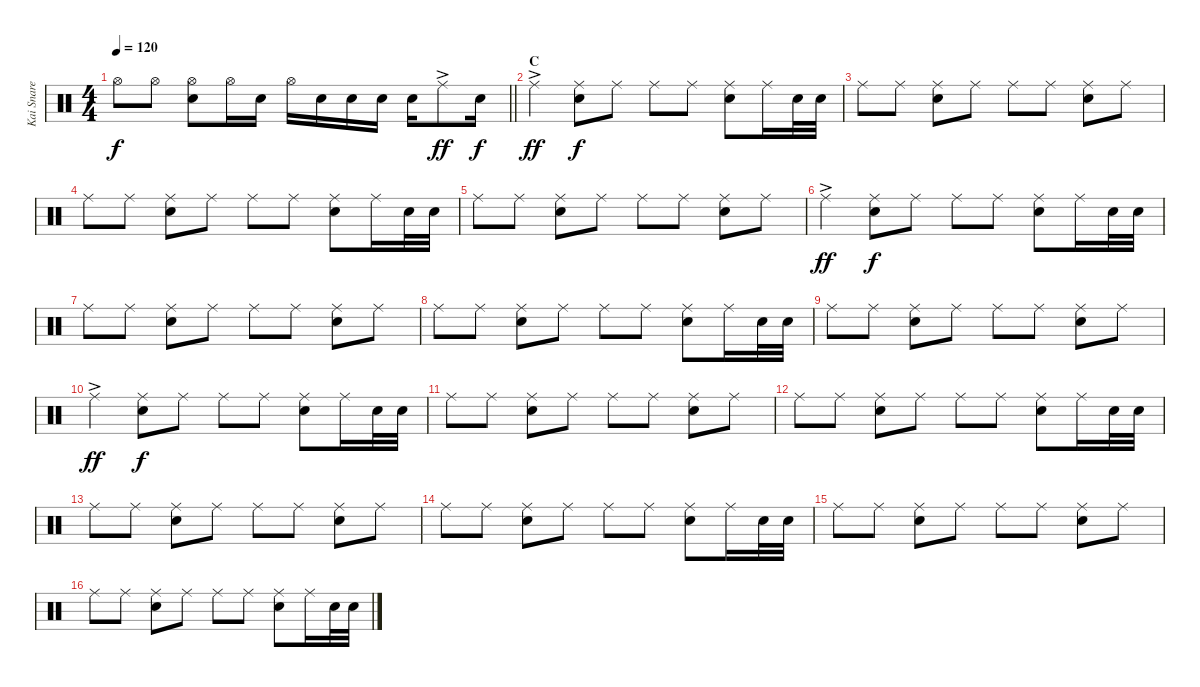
\track ("Kai Snare" "Kai Snare") {instrument percussion}
\staff {score}
\articulation defaults
\ts (4 4)
\tempo 120
\clef neutral
\barLineRight lightlight
\ks c "Hi-Hat (open)".8{dy f} "Hi-Hat (open)".8
("Hi-Hat (open)" "Snare (hit) 2").8 "Hi-Hat (open)".16 "Snare (hit) 2".16 "Hi-Hat (open)".16 "Snare (hit) 2".16 "Snare (hit) 2".16 "Snare (hit) 2".16 "Snare (hit) 2".16 "Ride (middle)"{ac}.8{dy ff} "Snare (hit) 2".16{dy f} |
\section ("" "C")
"Ride (middle)"{ac}.4{dy ff} ("Ride (middle)" "Snare (hit) 2").8{dy f} "Ride (middle)".8 "Ride (middle)".8 "Ride (middle)".8 ("Ride (middle)" "Snare (hit) 2").8 "Ride (middle)".16 "Snare (hit) 2".32 "Snare (hit) 2".32 |
"Ride (middle)".8 "Ride (middle)".8 ("Ride (middle)" "Snare (hit) 2").8 "Ride (middle)".8 "Ride (middle)".8 "Ride (middle)".8 ("Ride (middle)" "Snare (hit) 2").8 "Ride (middle)".8 |
"Ride (middle)".8 "Ride (middle)".8 ("Ride (middle)" "Snare (hit) 2").8 "Ride (middle)".8 "Ride (middle)".8 "Ride (middle)".8 ("Ride (middle)" "Snare (hit) 2").8 "Ride (middle)".16 "Snare (hit) 2".32 "Snare (hit) 2".32 |
"Ride (middle)".8 "Ride (middle)".8 ("Ride (middle)" "Snare (hit) 2").8 "Ride (middle)".8 "Ride (middle)".8 "Ride (middle)".8 ("Ride (middle)" "Snare (hit) 2").8 "Ride (middle)".8 |
"Ride (middle)"{ac}.4{dy ff} ("Ride (middle)" "Snare (hit) 2").8{dy f} "Ride (middle)".8 "Ride (middle)".8 "Ride (middle)".8 ("Ride (middle)" "Snare (hit) 2").8 "Ride (middle)".16 "Snare (hit) 2".32 "Snare (hit) 2".32 |
"Ride (middle)".8 "Ride (middle)".8 ("Ride (middle)" "Snare (hit) 2").8 "Ride (middle)".8 "Ride (middle)".8 "Ride (middle)".8 ("Ride (middle)" "Snare (hit) 2").8 "Ride (middle)".8 |
"Ride (middle)".8 "Ride (middle)".8 ("Ride (middle)" "Snare (hit) 2").8 "Ride (middle)".8 "Ride (middle)".8 "Ride (middle)".8 ("Ride (middle)" "Snare (hit) 2").8 "Ride (middle)".16 "Snare (hit) 2".32 "Snare (hit) 2".32 |
"Ride (middle)".8 "Ride (middle)".8 ("Ride (middle)" "Snare (hit) 2").8 "Ride (middle)".8 "Ride (middle)".8 "Ride (middle)".8 ("Ride (middle)" "Snare (hit) 2").8 "Ride (middle)".8 |
"Ride (middle)"{ac}.4{dy ff} ("Ride (middle)" "Snare (hit) 2").8{dy f} "Ride (middle)".8 "Ride (middle)".8 "Ride (middle)".8 ("Ride (middle)" "Snare (hit) 2").8 "Ride (middle)".16 "Snare (hit) 2".32 "Snare (hit) 2".32 |
"Ride (middle)".8 "Ride (middle)".8 ("Ride (middle)" "Snare (hit) 2").8 "Ride (middle)".8 "Ride (middle)".8 "Ride (middle)".8 ("Ride (middle)" "Snare (hit) 2").8 "Ride (middle)".8 |
"Ride (middle)".8 "Ride (middle)".8 ("Ride (middle)" "Snare (hit) 2").8 "Ride (middle)".8 "Ride (middle)".8 "Ride (middle)".8 ("Ride (middle)" "Snare (hit) 2").8 "Ride (middle)".16 "Snare (hit) 2".32 "Snare (hit) 2".32 |
"Ride (middle)".8 "Ride (middle)".8 ("Ride (middle)" "Snare (hit) 2").8 "Ride (middle)".8 "Ride (middle)".8 "Ride (middle)".8 ("Ride (middle)" "Snare (hit) 2").8 "Ride (middle)".8 |
"Ride (middle)".8 "Ride (middle)".8 ("Ride (middle)" "Snare (hit) 2").8 "Ride (middle)".8 "Ride (middle)".8 "Ride (middle)".8 ("Ride (middle)" "Snare (hit) 2").8 "Ride (middle)".16 "Snare (hit) 2".32 "Snare (hit) 2".32 |
"Ride (middle)".8 "Ride (middle)".8 ("Ride (middle)" "Snare (hit) 2").8 "Ride (middle)".8 "Ride (middle)".8 "Ride (middle)".8 ("Ride (middle)" "Snare (hit) 2").8 "Ride (middle)".8 |
"Ride (middle)".8 "Ride (middle)".8 ("Ride (middle)" "Snare (hit) 2").8 "Ride (middle)".8 "Ride (middle)".8 "Ride (middle)".8 ("Ride (middle)" "Snare (hit) 2").8 "Ride (middle)".16 "Snare (hit) 2".32 "Snare (hit) 2".32
